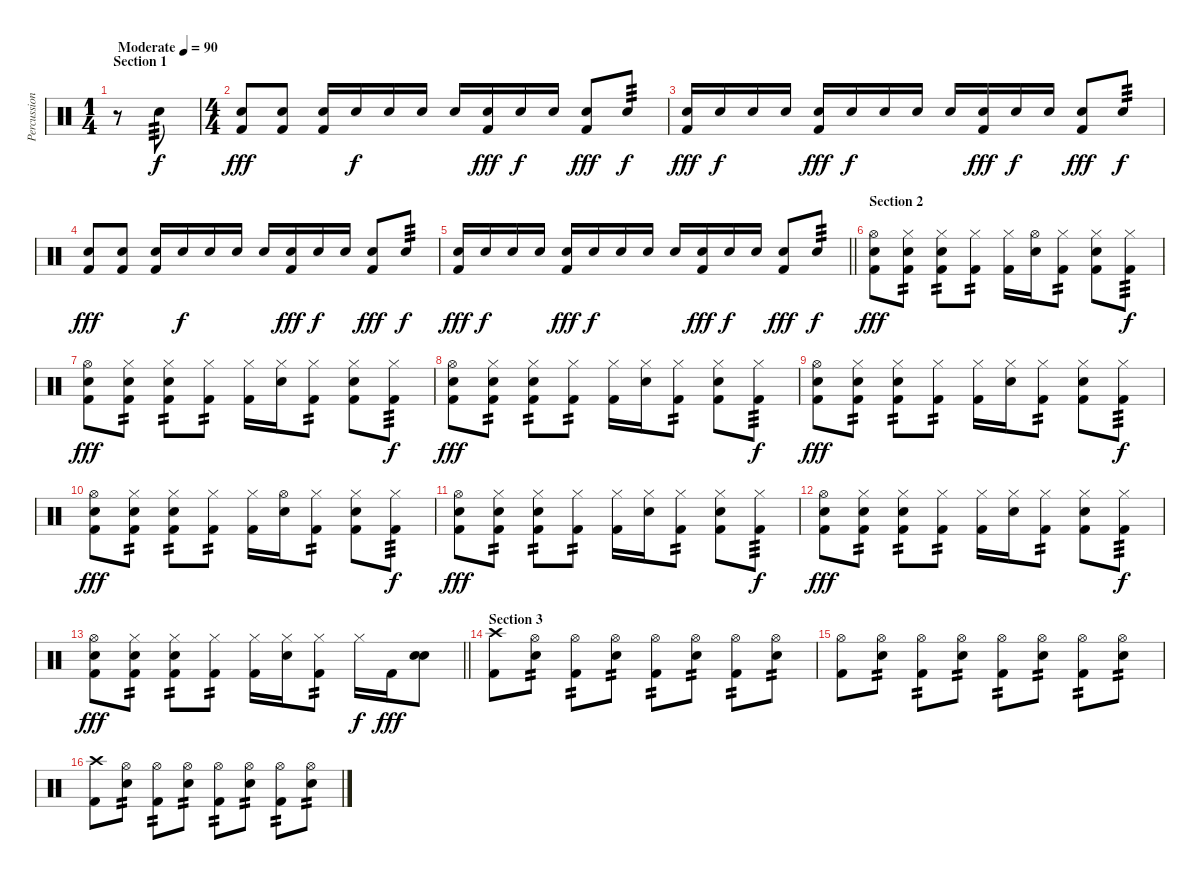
\track ("Percussion" "Percussion") {instrument percussion}
\staff {score}
\articulation defaults
\ts (1 4)
\section ("" "Section 1")
\tempo (90 "Moderate")
\clef neutral
\ks c
r.8{dy f} "Electric Snare (hit)".8{tp 3} |
\ts (4 4)
("Electric Snare (hit)" "Kick (hit) 2").8{dy fff} ("Electric Snare (hit)" "Kick (hit) 2").8 ("Electric Snare (hit)" "Kick (hit) 2").16 "Electric Snare (hit)".16{dy f} "Electric Snare (hit)".16 "Electric Snare (hit)".16 "Electric Snare (hit)".16 ("Electric Snare (hit)" "Kick (hit) 2").16{dy fff} "Electric Snare (hit)".16{dy f} "Electric Snare (hit)".16 ("Electric Snare (hit)" "Kick (hit) 2").8{dy fff} "Electric Snare (hit)".8{tp 3 dy f} |
("Electric Snare (hit)" "Kick (hit) 2").16{dy fff} "Electric Snare (hit)".16{dy f} "Electric Snare (hit)".16 "Electric Snare (hit)".16 ("Electric Snare (hit)" "Kick (hit) 2").16{dy fff} "Electric Snare (hit)".16{dy f} "Electric Snare (hit)".16 "Electric Snare (hit)".16 "Electric Snare (hit)".16 ("Electric Snare (hit)" "Kick (hit) 2").16{dy fff} "Electric Snare (hit)".16{dy f} "Electric Snare (hit)".16 ("Electric Snare (hit)" "Kick (hit) 2").8{dy fff} "Electric Snare (hit)".8{tp 3 dy f} |
("Electric Snare (hit)" "Kick (hit) 2").8{dy fff} ("Electric Snare (hit)" "Kick (hit) 2").8 ("Electric Snare (hit)" "Kick (hit) 2").16 "Electric Snare (hit)".16{dy f} "Electric Snare (hit)".16 "Electric Snare (hit)".16 "Electric Snare (hit)".16 ("Electric Snare (hit)" "Kick (hit) 2").16{dy fff} "Electric Snare (hit)".16{dy f} "Electric Snare (hit)".16 ("Electric Snare (hit)" "Kick (hit) 2").8{dy fff} "Electric Snare (hit)".8{tp 3 dy f} |
\barLineRight lightlight
("Electric Snare (hit)" "Kick (hit) 2").16{dy fff} "Electric Snare (hit)".16{dy f} "Electric Snare (hit)".16 "Electric Snare (hit)".16 ("Electric Snare (hit)" "Kick (hit) 2").16{dy fff} "Electric Snare (hit)".16{dy f} "Electric Snare (hit)".16 "Electric Snare (hit)".16 "Electric Snare (hit)".16 ("Electric Snare (hit)" "Kick (hit) 2").16{dy fff} "Electric Snare (hit)".16{dy f} "Electric Snare (hit)".16 ("Electric Snare (hit)" "Kick (hit) 2").8{dy fff} "Electric Snare (hit)".8{tp 3 dy f} |
\section ("" "Section 2")
("Hi-Hat (open)" "Electric Snare (hit)" "Kick (hit) 2").8{dy fff} ("Hi-Hat (closed)" "Electric Snare (hit)" "Kick (hit) 2").8{tp 2} ("Hi-Hat (closed)" "Electric Snare (hit)" "Kick (hit) 2").8{tp 2} ("Hi-Hat (closed)" "Kick (hit) 2").8{tp 2} ("Hi-Hat (closed)" "Kick (hit) 2").16 ("Hi-Hat (open)" "Electric Snare (hit)").16 ("Hi-Hat (closed)" "Kick (hit) 2").8{tp 2} ("Hi-Hat (closed)" "Electric Snare (hit)" "Kick (hit) 2").8 ("Hi-Hat (closed)" "Kick (hit) 2").8{tp 3 dy f} |
("Hi-Hat (open)" "Electric Snare (hit)" "Kick (hit) 2").8{dy fff} ("Hi-Hat (closed)" "Electric Snare (hit)" "Kick (hit) 2").8{tp 2} ("Hi-Hat (closed)" "Electric Snare (hit)" "Kick (hit) 2").8{tp 2} ("Hi-Hat (closed)" "Kick (hit) 2").8{tp 2} ("Hi-Hat (closed)" "Kick (hit) 2").16 ("Hi-Hat (closed)" "Electric Snare (hit)").16 ("Hi-Hat (closed)" "Kick (hit) 2").8{tp 2} ("Hi-Hat (closed)" "Electric Snare (hit)" "Kick (hit) 2").8 ("Hi-Hat (closed)" "Kick (hit) 2").8{tp 3 dy f} |
("Hi-Hat (open)" "Electric Snare (hit)" "Kick (hit) 2").8{dy fff} ("Hi-Hat (closed)" "Electric Snare (hit)" "Kick (hit) 2").8{tp 2} ("Hi-Hat (closed)" "Electric Snare (hit)" "Kick (hit) 2").8{tp 2} ("Hi-Hat (closed)" "Kick (hit) 2").8{tp 2} ("Hi-Hat (closed)" "Kick (hit) 2").16 ("Hi-Hat (closed)" "Electric Snare (hit)").16 ("Hi-Hat (closed)" "Kick (hit) 2").8{tp 2} ("Hi-Hat (closed)" "Electric Snare (hit)" "Kick (hit) 2").8 ("Hi-Hat (closed)" "Kick (hit) 2").8{tp 3 dy f} |
("Hi-Hat (open)" "Electric Snare (hit)" "Kick (hit) 2").8{dy fff} ("Hi-Hat (closed)" "Electric Snare (hit)" "Kick (hit) 2").8{tp 2} ("Hi-Hat (closed)" "Electric Snare (hit)" "Kick (hit) 2").8{tp 2} ("Hi-Hat (closed)" "Kick (hit) 2").8{tp 2} ("Hi-Hat (closed)" "Kick (hit) 2").16 ("Hi-Hat (closed)" "Electric Snare (hit)").16 ("Hi-Hat (closed)" "Kick (hit) 2").8{tp 2} ("Hi-Hat (closed)" "Electric Snare (hit)" "Kick (hit) 2").8 ("Hi-Hat (closed)" "Kick (hit) 2").8{tp 3 dy f} |
("Hi-Hat (open)" "Electric Snare (hit)" "Kick (hit) 2").8{dy fff} ("Hi-Hat (closed)" "Electric Snare (hit)" "Kick (hit) 2").8{tp 2} ("Hi-Hat (closed)" "Electric Snare (hit)" "Kick (hit) 2").8{tp 2} ("Hi-Hat (closed)" "Kick (hit) 2").8{tp 2} ("Hi-Hat (closed)" "Kick (hit) 2").16 ("Hi-Hat (open)" "Electric Snare (hit)").16 ("Hi-Hat (closed)" "Kick (hit) 2").8{tp 2} ("Hi-Hat (closed)" "Electric Snare (hit)" "Kick (hit) 2").8 ("Hi-Hat (closed)" "Kick (hit) 2").8{tp 3 dy f} |
("Hi-Hat (open)" "Electric Snare (hit)" "Kick (hit) 2").8{dy fff} ("Hi-Hat (closed)" "Electric Snare (hit)" "Kick (hit) 2").8{tp 2} ("Hi-Hat (closed)" "Electric Snare (hit)" "Kick (hit) 2").8{tp 2} ("Hi-Hat (closed)" "Kick (hit) 2").8{tp 2} ("Hi-Hat (closed)" "Kick (hit) 2").16 ("Hi-Hat (closed)" "Electric Snare (hit)").16 ("Hi-Hat (closed)" "Kick (hit) 2").8{tp 2} ("Hi-Hat (closed)" "Electric Snare (hit)" "Kick (hit) 2").8 ("Hi-Hat (closed)" "Kick (hit) 2").8{tp 3 dy f} |
("Hi-Hat (open)" "Electric Snare (hit)" "Kick (hit) 2").8{dy fff} ("Hi-Hat (closed)" "Electric Snare (hit)" "Kick (hit) 2").8{tp 2} ("Hi-Hat (closed)" "Electric Snare (hit)" "Kick (hit) 2").8{tp 2} ("Hi-Hat (closed)" "Kick (hit) 2").8{tp 2} ("Hi-Hat (closed)" "Kick (hit) 2").16 ("Hi-Hat (closed)" "Electric Snare (hit)").16 ("Hi-Hat (closed)" "Kick (hit) 2").8{tp 2} ("Hi-Hat (closed)" "Electric Snare (hit)" "Kick (hit) 2").8 ("Hi-Hat (closed)" "Kick (hit) 2").8{tp 3 dy f} |
\barLineRight lightlight
("Hi-Hat (open)" "Electric Snare (hit)" "Kick (hit) 2").8{dy fff} ("Hi-Hat (closed)" "Electric Snare (hit)" "Kick (hit) 2").8{tp 2} ("Hi-Hat (closed)" "Electric Snare (hit)" "Kick (hit) 2").8{tp 2} ("Hi-Hat (closed)" "Kick (hit) 2").8{tp 2} ("Hi-Hat (closed)" "Kick (hit) 2").16 ("Hi-Hat (closed)" "Electric Snare (hit)").16 ("Hi-Hat (closed)" "Kick (hit) 2").8{tp 2} "Hi-Hat (closed)".16{dy f} "Kick (hit) 2".16{dy fff} ("Snare (hit) 2" "Electric Snare (hit)").8{bd 60} |
\section ("" "Section 3")
("Crash high (hit)" "Kick (hit) 2").8 ("Hi-Hat (open)" "Electric Snare (hit)").8{tp 2} ("Hi-Hat (open)" "Kick (hit) 2").8{tp 2} ("Hi-Hat (open)" "Electric Snare (hit)").8{tp 2} ("Hi-Hat (open)" "Kick (hit) 2").8{tp 2} ("Hi-Hat (open)" "Electric Snare (hit)").8{tp 2} ("Hi-Hat (open)" "Kick (hit) 2").8{tp 2} ("Hi-Hat (open)" "Electric Snare (hit)").8{tp 2} |
("Hi-Hat (open)" "Kick (hit) 2").8 ("Hi-Hat (open)" "Electric Snare (hit)").8{tp 2} ("Hi-Hat (open)" "Kick (hit) 2").8{tp 2} ("Hi-Hat (open)" "Electric Snare (hit)").8{tp 2} ("Hi-Hat (open)" "Kick (hit) 2").8{tp 2} ("Hi-Hat (open)" "Electric Snare (hit)").8{tp 2} ("Hi-Hat (open)" "Kick (hit) 2").8{tp 2} ("Hi-Hat (open)" "Electric Snare (hit)").8{tp 2} |
("Crash high (hit)" "Kick (hit) 2").8 ("Hi-Hat (open)" "Electric Snare (hit)").8{tp 2} ("Hi-Hat (open)" "Kick (hit) 2").8{tp 2} ("Hi-Hat (open)" "Electric Snare (hit)").8{tp 2} ("Hi-Hat (open)" "Kick (hit) 2").8{tp 2} ("Hi-Hat (open)" "Electric Snare (hit)").8{tp 2} ("Hi-Hat (open)" "Kick (hit) 2").8{tp 2} ("Hi-Hat (open)" "Electric Snare (hit)").8{tp 2}
